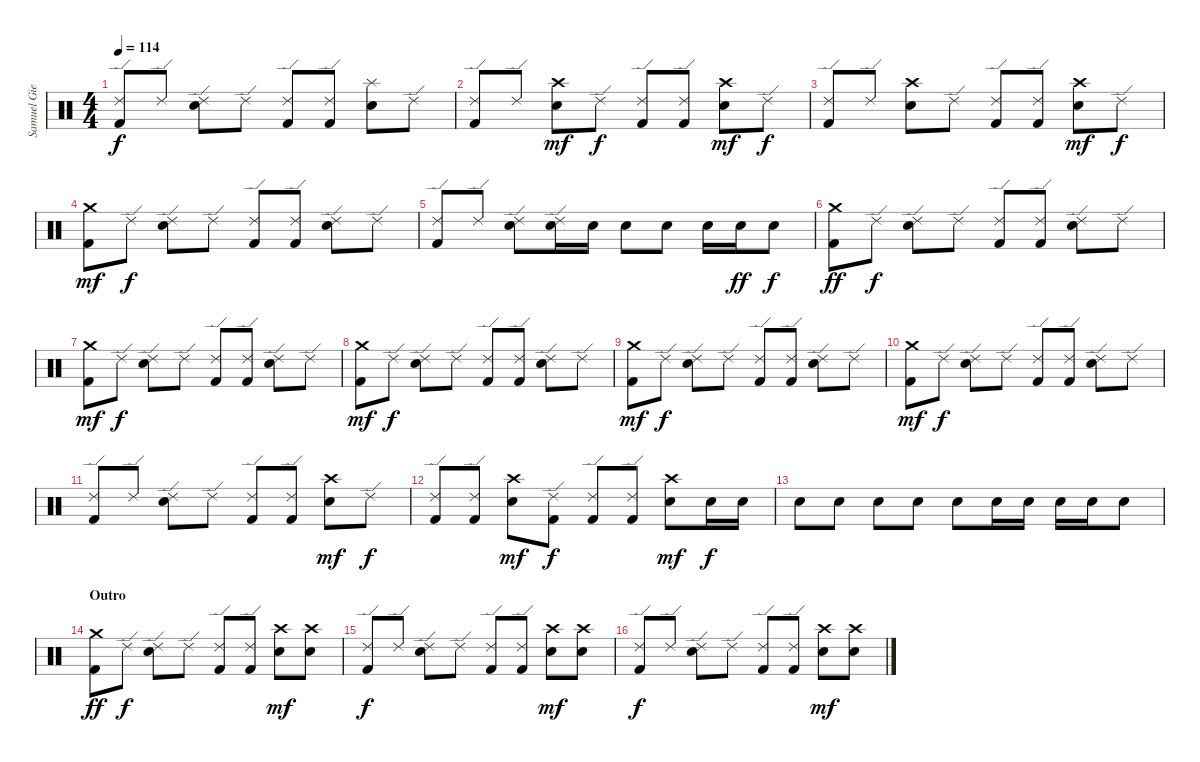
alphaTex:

\track ("Samuel Giers - Drum" "Samuel Gie") {instrument percussion}
\staff {score}
\articulation defaults
\ts (4 4)
\tempo 114
\clef neutral
\ks c
("Ride (edge) 2" "Kick (hit) 2").8{dy f} "Ride (edge) 2".8 ("Ride (edge) 2" "Snare (hit) 2").8 "Ride (edge) 2".8 ("Ride (edge) 2" "Kick (hit) 2").8 ("Ride (edge) 2" "Kick (hit) 2").8 ("Splash (hit)" "Snare (hit) 2").8 "Ride (edge) 2".8 |
("Ride (edge) 2" "Kick (hit) 2").8 "Ride (edge) 2".8 ("Crash high (hit)" "Snare (hit) 2").8{dy mf} "Ride (edge) 2".8{dy f} ("Ride (edge) 2" "Kick (hit) 2").8 ("Ride (edge) 2" "Kick (hit) 2").8 ("Crash high (hit)" "Snare (hit) 2").8{dy mf} "Ride (edge) 2".8{dy f} |
("Ride (edge) 2" "Kick (hit) 2").8 "Ride (edge) 2".8 ("Crash high (hit)" "Snare (hit) 2").8 "Ride (edge) 2".8 ("Ride (edge) 2" "Kick (hit) 2").8 ("Ride (edge) 2" "Kick (hit) 2").8 ("Crash high (hit)" "Snare (hit) 2").8{dy mf} "Ride (edge) 2".8{dy f} |
("Crash medium (hit)" "Kick (hit) 2").8{dy mf} "Ride (edge) 2".8{dy f} ("Ride (edge) 2" "Snare (hit) 2").8 "Ride (edge) 2".8 ("Ride (edge) 2" "Kick (hit) 2").8 ("Ride (edge) 2" "Kick (hit) 2").8 ("Ride (edge) 2" "Snare (hit) 2").8 "Ride (edge) 2".8 |
("Ride (edge) 2" "Kick (hit) 2").8 "Ride (edge) 2".8 ("Ride (edge) 2" "Snare (hit) 2").8 ("Ride (edge) 2" "Snare (hit) 2").16 "Snare (hit) 2".16 "Snare (hit) 2".8 "Snare (hit) 2".8 "Snare (hit) 2".16 "Snare (hit) 2".16{dy ff} "Snare (hit) 2".8{dy f} |
("Crash medium (hit)" "Kick (hit) 2").8{dy ff} "Ride (edge) 2".8{dy f} ("Ride (edge) 2" "Snare (hit) 2").8 "Ride (edge) 2".8 ("Ride (edge) 2" "Kick (hit) 2").8 ("Ride (edge) 2" "Kick (hit) 2").8 ("Ride (edge) 2" "Snare (hit) 2").8 "Ride (edge) 2".8 |
("Crash medium (hit)" "Kick (hit) 2").8{dy mf} "Ride (edge) 2".8{dy f} ("Ride (edge) 2" "Snare (hit) 2").8 "Ride (edge) 2".8 ("Ride (edge) 2" "Kick (hit) 2").8 ("Ride (edge) 2" "Kick (hit) 2").8 ("Ride (edge) 2" "Snare (hit) 2").8 "Ride (edge) 2".8 |
("Crash medium (hit)" "Kick (hit) 2").8{dy mf} "Ride (edge) 2".8{dy f} ("Ride (edge) 2" "Snare (hit) 2").8 "Ride (edge) 2".8 ("Ride (edge) 2" "Kick (hit) 2").8 ("Ride (edge) 2" "Kick (hit) 2").8 ("Ride (edge) 2" "Snare (hit) 2").8 "Ride (edge) 2".8 |
("Crash medium (hit)" "Kick (hit) 2").8{dy mf} "Ride (edge) 2".8{dy f} ("Ride (edge) 2" "Snare (hit) 2").8 "Ride (edge) 2".8 ("Ride (edge) 2" "Kick (hit) 2").8 ("Ride (edge) 2" "Kick (hit) 2").8 ("Ride (edge) 2" "Snare (hit) 2").8 "Ride (edge) 2".8 |
("Crash medium (hit)" "Kick (hit) 2").8{dy mf} "Ride (edge) 2".8{dy f} ("Ride (edge) 2" "Snare (hit) 2").8 "Ride (edge) 2".8 ("Ride (edge) 2" "Kick (hit) 2").8 ("Ride (edge) 2" "Kick (hit) 2").8 ("Ride (edge) 2" "Snare (hit) 2").8 "Ride (edge) 2".8 |
("Ride (edge) 2" "Kick (hit) 2").8 "Ride (edge) 2".8 ("Ride (edge) 2" "Snare (hit) 2").8 "Ride (edge) 2".8 ("Ride (edge) 2" "Kick (hit) 2").8 ("Ride (edge) 2" "Kick (hit) 2").8 ("Crash high (hit)" "Snare (hit) 2").8{dy mf} "Ride (edge) 2".8{dy f} |
("Ride (edge) 2" "Kick (hit) 2").8 ("Ride (edge) 2" "Kick (hit) 2").8 ("Crash high (hit)" "Snare (hit) 2").8{dy mf} ("Ride (edge) 2" "Kick (hit) 2").8{dy f} ("Ride (edge) 2" "Kick (hit) 2").8 ("Ride (edge) 2" "Kick (hit) 2").8 ("Crash high (hit)" "Snare (hit) 2").8{dy mf} "Snare (hit) 2".16{dy f} "Snare (hit) 2".16 |
"Snare (hit) 2".8 "Snare (hit) 2".8 "Snare (hit) 2".8 "Snare (hit) 2".8 "Snare (hit) 2".8 "Snare (hit) 2".16 "Snare (hit) 2".16 "Snare (hit) 2".16 "Snare (hit) 2".16 "Snare (hit) 2".8 |
\section ("" "Outro")
("Crash medium (hit)" "Kick (hit) 2").8{dy ff} "Ride (edge) 2".8{dy f} ("Ride (edge) 2" "Snare (hit) 2").8 "Ride (edge) 2".8 ("Ride (edge) 2" "Kick (hit) 2").8 ("Ride (edge) 2" "Kick (hit) 2").8 ("Crash high (hit)" "Snare (hit) 2").8{dy mf} ("Crash high (hit)" "Snare (hit) 2").8 |
("Ride (edge) 2" "Kick (hit) 2").8{dy f} "Ride (edge) 2".8 ("Ride (edge) 2" "Snare (hit) 2").8 "Ride (edge) 2".8 ("Ride (edge) 2" "Kick (hit) 2").8 ("Ride (edge) 2" "Kick (hit) 2").8 ("Crash high (hit)" "Snare (hit) 2").8{dy mf} ("Crash high (hit)" "Snare (hit) 2").8 |
("Ride (edge) 2" "Kick (hit) 2").8{dy f} "Ride (edge) 2".8 ("Ride (edge) 2" "Snare (hit) 2").8 "Ride (edge) 2".8 ("Ride (edge) 2" "Kick (hit) 2").8 ("Ride (edge) 2" "Kick (hit) 2").8 ("Crash high (hit)" "Snare (hit) 2").8{dy mf} ("Crash high (hit)" "Snare (hit) 2").8
